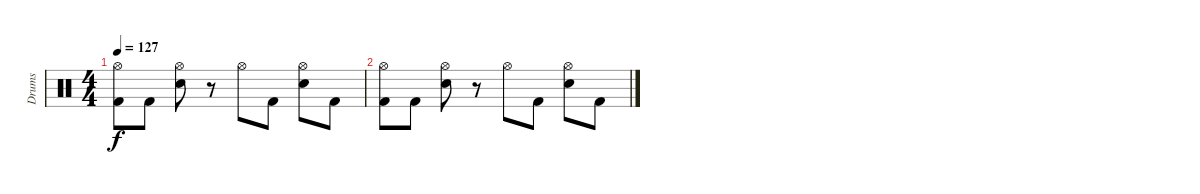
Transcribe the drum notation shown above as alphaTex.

\track ("Drums" "Drums") {instrument percussion}
\staff {score}
\articulation defaults
\ts (4 4)
\tempo 127
\clef neutral
\ks c
("Hi-Hat (open)" "Kick (hit) 2").8{dy f} "Kick (hit) 2".8 ("Hi-Hat (open)" "Electric Snare (hit)").8 r.8 "Hi-Hat (open)".8 "Kick (hit) 2".8 ("Hi-Hat (open)" "Electric Snare (hit)").8 "Kick (hit) 2".8 |
("Hi-Hat (open)" "Kick (hit) 2").8 "Kick (hit) 2".8 ("Hi-Hat (open)" "Electric Snare (hit)").8 r.8 "Hi-Hat (open)".8 "Kick (hit) 2".8 ("Hi-Hat (open)" "Electric Snare (hit)").8 "Kick (hit) 2".8
